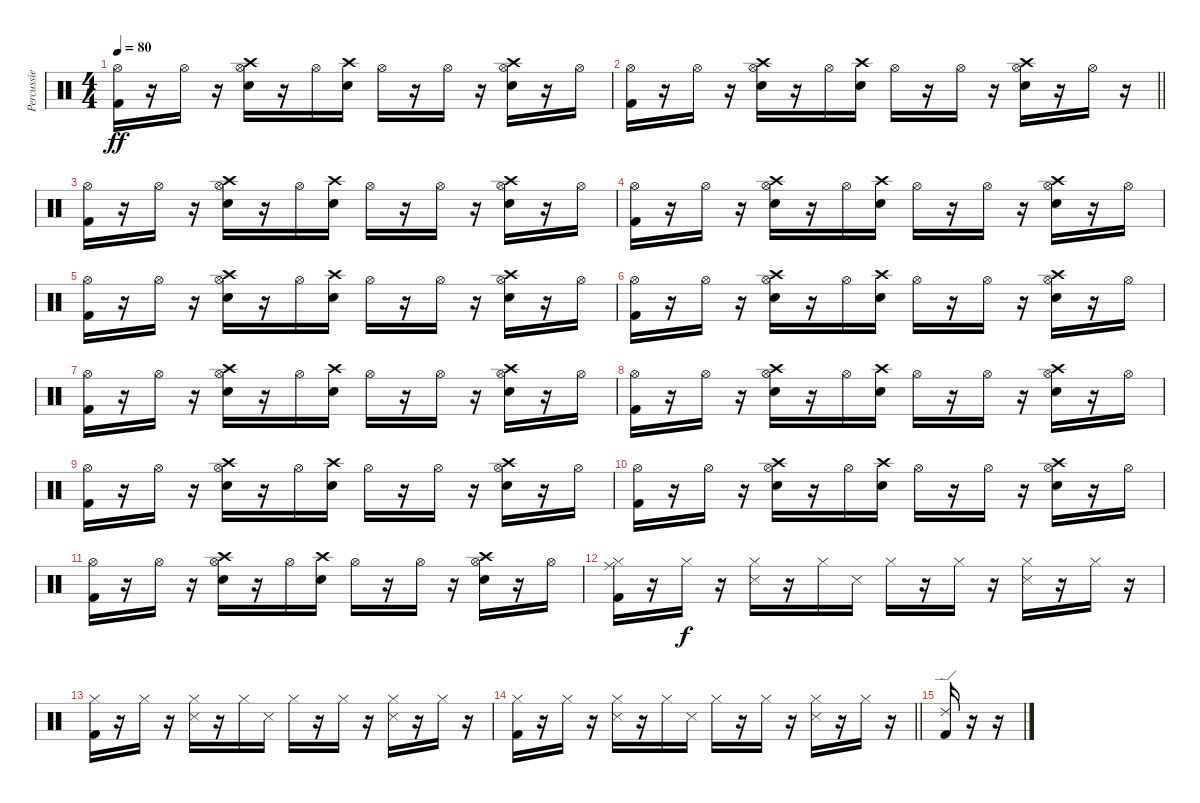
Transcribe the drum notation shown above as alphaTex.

\track ("Percussie" "Percussie") {instrument percussion}
\staff {score}
\articulation defaults
\ts (4 4)
\tempo 80
\clef neutral
\ks c
("Kick (hit) 2" "Hi-Hat (open)").16{dy ff} r.16 "Hi-Hat (open)".16 r.16 ("Electric Snare (hit)" "Hi-Hat (open)" "Crash high (hit)").16 r.16 "Hi-Hat (open)".16 ("Electric Snare (hit)" "Crash high (hit)").16 "Hi-Hat (open)".16 r.16 "Hi-Hat (open)".16 r.16 ("Electric Snare (hit)" "Hi-Hat (open)" "Crash high (hit)").16 r.16 "Hi-Hat (open)".16 |
\barLineRight lightlight
("Kick (hit) 2" "Hi-Hat (open)").16 r.16 "Hi-Hat (open)".16 r.16 ("Electric Snare (hit)" "Hi-Hat (open)" "Crash high (hit)").16 r.16 "Hi-Hat (open)".16 ("Electric Snare (hit)" "Crash high (hit)").16 "Hi-Hat (open)".16 r.16 "Hi-Hat (open)".16 r.16 ("Electric Snare (hit)" "Hi-Hat (open)" "Crash high (hit)").16 r.16 "Hi-Hat (open)".16 r.16 |
("Kick (hit) 2" "Hi-Hat (open)").16 r.16 "Hi-Hat (open)".16 r.16 ("Electric Snare (hit)" "Hi-Hat (open)" "Crash high (hit)").16 r.16 "Hi-Hat (open)".16 ("Electric Snare (hit)" "Crash high (hit)").16 "Hi-Hat (open)".16 r.16 "Hi-Hat (open)".16 r.16 ("Electric Snare (hit)" "Hi-Hat (open)" "Crash high (hit)").16 r.16 "Hi-Hat (open)".16 |
("Kick (hit) 2" "Hi-Hat (open)").16 r.16 "Hi-Hat (open)".16 r.16 ("Electric Snare (hit)" "Hi-Hat (open)" "Crash high (hit)").16 r.16 "Hi-Hat (open)".16 ("Electric Snare (hit)" "Crash high (hit)").16 "Hi-Hat (open)".16 r.16 "Hi-Hat (open)".16 r.16 ("Electric Snare (hit)" "Hi-Hat (open)" "Crash high (hit)").16 r.16 "Hi-Hat (open)".16 |
("Kick (hit) 2" "Hi-Hat (open)").16 r.16 "Hi-Hat (open)".16 r.16 ("Electric Snare (hit)" "Hi-Hat (open)" "Crash high (hit)").16 r.16 "Hi-Hat (open)".16 ("Electric Snare (hit)" "Crash high (hit)").16 "Hi-Hat (open)".16 r.16 "Hi-Hat (open)".16 r.16 ("Electric Snare (hit)" "Hi-Hat (open)" "Crash high (hit)").16 r.16 "Hi-Hat (open)".16 |
("Kick (hit) 2" "Hi-Hat (open)").16 r.16 "Hi-Hat (open)".16 r.16 ("Electric Snare (hit)" "Hi-Hat (open)" "Crash high (hit)").16 r.16 "Hi-Hat (open)".16 ("Electric Snare (hit)" "Crash high (hit)").16 "Hi-Hat (open)".16 r.16 "Hi-Hat (open)".16 r.16 ("Electric Snare (hit)" "Hi-Hat (open)" "Crash high (hit)").16 r.16 "Hi-Hat (open)".16 |
("Kick (hit) 2" "Hi-Hat (open)").16 r.16 "Hi-Hat (open)".16 r.16 ("Electric Snare (hit)" "Hi-Hat (open)" "Crash high (hit)").16 r.16 "Hi-Hat (open)".16 ("Electric Snare (hit)" "Crash high (hit)").16 "Hi-Hat (open)".16 r.16 "Hi-Hat (open)".16 r.16 ("Electric Snare (hit)" "Hi-Hat (open)" "Crash high (hit)").16 r.16 "Hi-Hat (open)".16 |
("Kick (hit) 2" "Hi-Hat (open)").16 r.16 "Hi-Hat (open)".16 r.16 ("Electric Snare (hit)" "Hi-Hat (open)" "Crash high (hit)").16 r.16 "Hi-Hat (open)".16 ("Electric Snare (hit)" "Crash high (hit)").16 "Hi-Hat (open)".16 r.16 "Hi-Hat (open)".16 r.16 ("Electric Snare (hit)" "Hi-Hat (open)" "Crash high (hit)").16 r.16 "Hi-Hat (open)".16 |
("Kick (hit) 2" "Hi-Hat (open)").16 r.16 "Hi-Hat (open)".16 r.16 ("Electric Snare (hit)" "Hi-Hat (open)" "Crash high (hit)").16 r.16 "Hi-Hat (open)".16 ("Electric Snare (hit)" "Crash high (hit)").16 "Hi-Hat (open)".16 r.16 "Hi-Hat (open)".16 r.16 ("Electric Snare (hit)" "Hi-Hat (open)" "Crash high (hit)").16 r.16 "Hi-Hat (open)".16 |
("Kick (hit) 2" "Hi-Hat (open)").16 r.16 "Hi-Hat (open)".16 r.16 ("Electric Snare (hit)" "Hi-Hat (open)" "Crash high (hit)").16 r.16 "Hi-Hat (open)".16 ("Electric Snare (hit)" "Crash high (hit)").16 "Hi-Hat (open)".16 r.16 "Hi-Hat (open)".16 r.16 ("Electric Snare (hit)" "Hi-Hat (open)" "Crash high (hit)").16 r.16 "Hi-Hat (open)".16 |
("Kick (hit) 2" "Hi-Hat (open)").16 r.16 "Hi-Hat (open)".16 r.16 ("Electric Snare (hit)" "Hi-Hat (open)" "Crash high (hit)").16 r.16 "Hi-Hat (open)".16 ("Electric Snare (hit)" "Crash high (hit)").16 "Hi-Hat (open)".16 r.16 "Hi-Hat (open)".16 r.16 ("Electric Snare (hit)" "Hi-Hat (open)" "Crash high (hit)").16 r.16 "Hi-Hat (open)".16 |
("Kick (hit) 2" "Hi-Hat (closed)" "Ride (middle)").16 r.16 "Hi-Hat (closed)".16{dy f} r.16 ("Snare (side stick) 3" "Hi-Hat (closed)").16 r.16 "Hi-Hat (closed)".16 "Snare (side stick) 3".16 "Hi-Hat (closed)".16 r.16 "Hi-Hat (closed)".16 r.16 ("Snare (side stick) 3" "Hi-Hat (closed)").16 r.16 "Hi-Hat (closed)".16 r.16 |
("Kick (hit) 2" "Hi-Hat (closed)").16 r.16 "Hi-Hat (closed)".16 r.16 ("Snare (side stick) 3" "Hi-Hat (closed)").16 r.16 "Hi-Hat (closed)".16 "Snare (side stick) 3".16 "Hi-Hat (closed)".16 r.16 "Hi-Hat (closed)".16 r.16 ("Snare (side stick) 3" "Hi-Hat (closed)").16 r.16 "Hi-Hat (closed)".16 r.16 |
\barLineRight lightlight
("Kick (hit) 2" "Hi-Hat (closed)").16 r.16 "Hi-Hat (closed)".16 r.16 ("Snare (side stick) 3" "Hi-Hat (closed)").16 r.16 "Hi-Hat (closed)".16 "Snare (side stick) 3".16 "Hi-Hat (closed)".16 r.16 "Hi-Hat (closed)".16 r.16 ("Snare (side stick) 3" "Hi-Hat (closed)").16 r.16 "Hi-Hat (closed)".16 r.16 |
("Kick (hit) 2" "Ride (edge) 2").16 r.16 r.16
